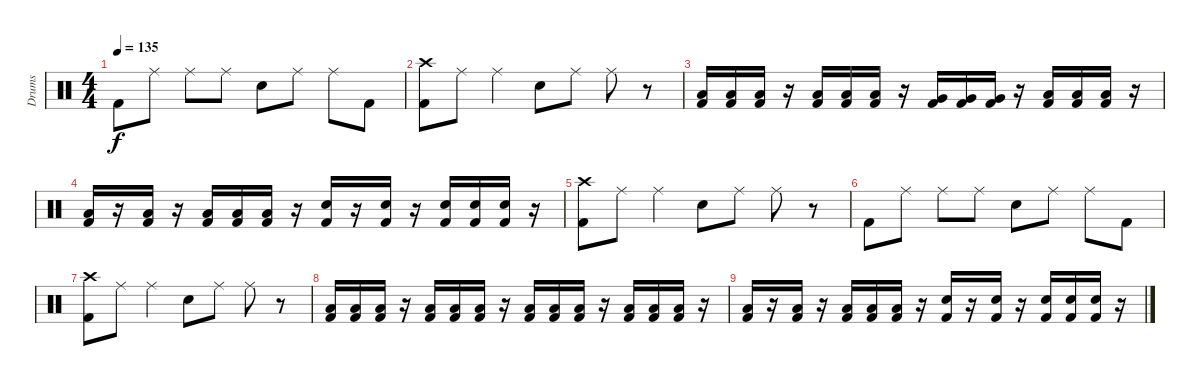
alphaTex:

\track ("Drums" "Drums") {instrument percussion}
\staff {score}
\articulation defaults
\ts (4 4)
\tempo 135
\clef neutral
\ks c "Kick (hit) 2".8{dy f} "Ride (middle)".8 "Ride (middle)".8 "Ride (middle)".8 "Electric Snare (hit)".8 "Ride (middle)".8 "Ride (middle)".8 "Kick (hit) 2".8
|
("Crash high (hit)" "Kick (hit) 2").8 "Ride (middle)".8 "Ride (middle)".4 "Electric Snare (hit)".8 "Ride (middle)".8 "Ride (middle)".8 r.8 |
("Low Tom (hit)" "Kick (hit) 2").16 ("Low Tom (hit)" "Kick (hit) 2").16 ("Low Tom (hit)" "Kick (hit) 2").16 r.16 ("Low Tom (hit)" "Kick (hit) 2").16 ("Low Tom (hit)" "Kick (hit) 2").16 ("Low Tom (hit)" "Kick (hit) 2").16 r.16 ("Very Low Tom (hit)" "Kick (hit) 2").16 ("Very Low Tom (hit)" "Kick (hit) 2").16 ("Very Low Tom (hit)" "Kick (hit) 2").16 r.16 ("Low Floor Tom (hit)" "Kick (hit) 2").16 ("Low Floor Tom (hit)" "Kick (hit) 2").16 ("Low Floor Tom (hit)" "Kick (hit) 2").16 r.16 |
("Low Floor Tom (hit)" "Kick (hit) 2").16 r.16 ("Low Floor Tom (hit)" "Kick (hit) 2").16 r.16 ("Low Floor Tom (hit)" "Kick (hit) 2").16 ("Low Floor Tom (hit)" "Kick (hit) 2").16 ("Low Floor Tom (hit)" "Kick (hit) 2").16 r.16 ("Electric Snare (hit)" "Kick (hit) 2").16 r.16 ("Electric Snare (hit)" "Kick (hit) 2").16 r.16 ("Electric Snare (hit)" "Kick (hit) 2").16 ("Electric Snare (hit)" "Kick (hit) 2").16 ("Electric Snare (hit)" "Kick (hit) 2").16 r.16 |
("Crash high (hit)" "Kick (hit) 2").8 "Ride (middle)".8 "Ride (middle)".4 "Electric Snare (hit)".8 "Ride (middle)".8 "Ride (middle)".8 r.8 |
"Kick (hit) 2".8 "Ride (middle)".8 "Ride (middle)".8 "Ride (middle)".8 "Electric Snare (hit)".8 "Ride (middle)".8 "Ride (middle)".8 "Kick (hit) 2".8 |
("Crash high (hit)" "Kick (hit) 2").8 "Ride (middle)".8 "Ride (middle)".4 "Electric Snare (hit)".8 "Ride (middle)".8 "Ride (middle)".8 r.8 |
("Low Floor Tom (hit)" "Kick (hit) 2").16 ("Low Floor Tom (hit)" "Kick (hit) 2").16 ("Low Floor Tom (hit)" "Kick (hit) 2").16 r.16 ("Low Floor Tom (hit)" "Kick (hit) 2").16 ("Low Floor Tom (hit)" "Kick (hit) 2").16 ("Low Floor Tom (hit)" "Kick (hit) 2").16 r.16 ("Low Floor Tom (hit)" "Kick (hit) 2").16 ("Low Floor Tom (hit)" "Kick (hit) 2").16 ("Low Floor Tom (hit)" "Kick (hit) 2").16 r.16 ("Low Floor Tom (hit)" "Kick (hit) 2").16 ("Low Floor Tom (hit)" "Kick (hit) 2").16 ("Low Floor Tom (hit)" "Kick (hit) 2").16 r.16 |
("Low Floor Tom (hit)" "Kick (hit) 2").16 r.16 ("Low Floor Tom (hit)" "Kick (hit) 2").16 r.16 ("Low Floor Tom (hit)" "Kick (hit) 2").16 ("Low Floor Tom (hit)" "Kick (hit) 2").16 ("Low Floor Tom (hit)" "Kick (hit) 2").16 r.16 ("Electric Snare (hit)" "Kick (hit) 2").16 r.16 ("Electric Snare (hit)" "Kick (hit) 2").16 r.16 ("Electric Snare (hit)" "Kick (hit) 2").16 ("Electric Snare (hit)" "Kick (hit) 2").16 ("Electric Snare (hit)" "Kick (hit) 2").16 r.16
